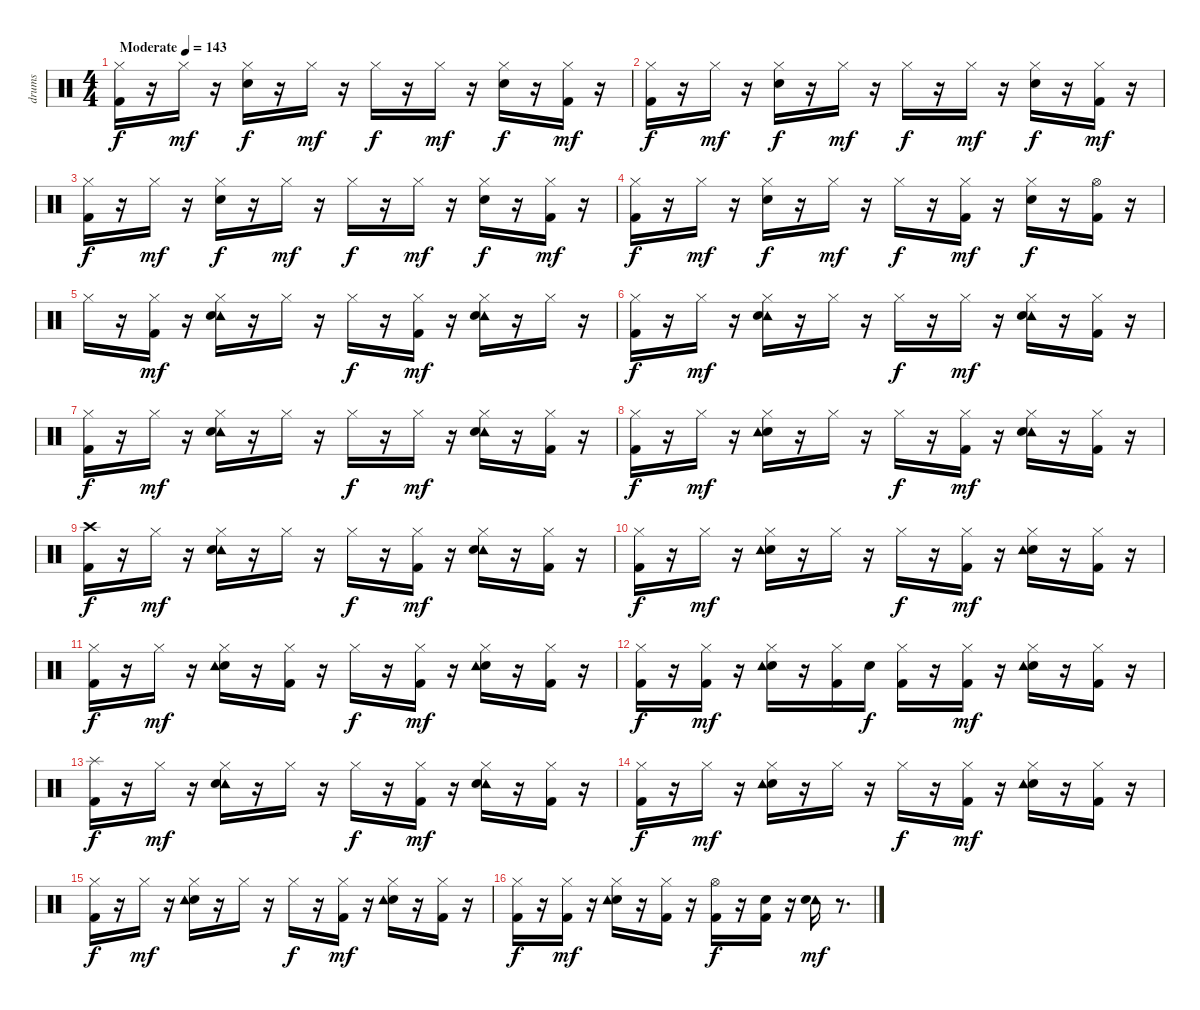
\track ("drums" "drums") {instrument percussion}
\staff {score}
\articulation defaults
\ts (4 4)
\tempo (143 "Moderate")
\clef neutral
\ks c
("Kick (hit) 2" "Hi-Hat (closed)").16{dy f} r.16 "Hi-Hat (closed)".16{dy mf} r.16 ("Snare (hit) 2" "Hi-Hat (closed)").16{dy f} r.16 "Hi-Hat (closed)".16{dy mf} r.16 "Hi-Hat (closed)".16{dy f} r.16 "Hi-Hat (closed)".16{dy mf} r.16 ("Snare (hit) 2" "Hi-Hat (closed)").16{dy f} r.16 ("Kick (hit) 2" "Hi-Hat (closed)").16{dy mf} r.16 |
("Kick (hit) 2" "Hi-Hat (closed)").16{dy f} r.16 "Hi-Hat (closed)".16{dy mf} r.16 ("Snare (hit) 2" "Hi-Hat (closed)").16{dy f} r.16 "Hi-Hat (closed)".16{dy mf} r.16 "Hi-Hat (closed)".16{dy f} r.16 "Hi-Hat (closed)".16{dy mf} r.16 ("Snare (hit) 2" "Hi-Hat (closed)").16{dy f} r.16 ("Kick (hit) 2" "Hi-Hat (closed)").16{dy mf} r.16 |
("Kick (hit) 2" "Hi-Hat (closed)").16{dy f} r.16 "Hi-Hat (closed)".16{dy mf} r.16 ("Snare (hit) 2" "Hi-Hat (closed)").16{dy f} r.16 "Hi-Hat (closed)".16{dy mf} r.16 "Hi-Hat (closed)".16{dy f} r.16 "Hi-Hat (closed)".16{dy mf} r.16 ("Snare (hit) 2" "Hi-Hat (closed)").16{dy f} r.16 ("Kick (hit) 2" "Hi-Hat (closed)").16{dy mf} r.16 |
("Hi-Hat (closed)" "Kick (hit) 2").16{dy f} r.16 "Hi-Hat (closed)".16{dy mf} r.16 ("Hi-Hat (closed)" "Snare (hit) 2").16{dy f} r.16 "Hi-Hat (closed)".16{dy mf} r.16 "Hi-Hat (closed)".16{dy f} r.16 ("Kick (hit) 2" "Hi-Hat (closed)").16{dy mf} r.16 ("Hi-Hat (closed)" "Snare (hit) 2").16{dy f} r.16 ("Hi-Hat (open)" "Kick (hit) 2").16 r.16 |
"Hi-Hat (closed)".16 r.16 ("Kick (hit) 2" "Hi-Hat (closed)").16{dy mf} r.16 ("Tambourine (hit)" "Hi-Hat (closed)" "Snare (hit) 2").16 r.16 "Hi-Hat (closed)".16 r.16 "Hi-Hat (closed)".16{dy f} r.16 ("Kick (hit) 2" "Hi-Hat (closed)").16{dy mf} r.16 ("Tambourine (hit)" "Hi-Hat (closed)" "Snare (hit) 2").16 r.16 "Hi-Hat (closed)".16 r.16 |
("Kick (hit) 2" "Hi-Hat (closed)").16{dy f} r.16 "Hi-Hat (closed)".16{dy mf} r.16 ("Tambourine (hit)" "Snare (hit) 2" "Hi-Hat (closed)").16 r.16 "Hi-Hat (closed)".16 r.16 "Hi-Hat (closed)".16{dy f} r.16 "Hi-Hat (closed)".16{dy mf} r.16 ("Tambourine (hit)" "Snare (hit) 2" "Hi-Hat (closed)").16 r.16 ("Kick (hit) 2" "Hi-Hat (closed)").16 r.16 |
("Kick (hit) 2" "Hi-Hat (closed)").16{dy f} r.16 "Hi-Hat (closed)".16{dy mf} r.16 ("Tambourine (hit)" "Snare (hit) 2" "Hi-Hat (closed)").16 r.16 "Hi-Hat (closed)".16 r.16 "Hi-Hat (closed)".16{dy f} r.16 "Hi-Hat (closed)".16{dy mf} r.16 ("Tambourine (hit)" "Snare (hit) 2" "Hi-Hat (closed)").16 r.16 ("Kick (hit) 2" "Hi-Hat (closed)").16 r.16 |
("Hi-Hat (closed)" "Kick (hit) 2").16{dy f} r.16 "Hi-Hat (closed)".16{dy mf} r.16 ("Hi-Hat (closed)" "Snare (hit) 2" "Tambourine (hit)").16 r.16 "Hi-Hat (closed)".16 r.16 "Hi-Hat (closed)".16{dy f} r.16 ("Kick (hit) 2" "Hi-Hat (closed)").16{dy mf} r.16 ("Tambourine (hit)" "Hi-Hat (closed)" "Snare (hit) 2").16 r.16 ("Kick (hit) 2" "Hi-Hat (closed)").16 r.16 |
("Kick (hit) 2" "Crash high (hit)").16{dy f} r.16 "Hi-Hat (closed)".16{dy mf} r.16 ("Tambourine (hit)" "Hi-Hat (closed)" "Snare (hit) 2").16 r.16 "Hi-Hat (closed)".16 r.16 "Hi-Hat (closed)".16{dy f} r.16 ("Hi-Hat (closed)" "Kick (hit) 2").16{dy mf} r.16 ("Tambourine (hit)" "Hi-Hat (closed)" "Snare (hit) 2").16 r.16 ("Hi-Hat (closed)" "Kick (hit) 2").16 r.16 |
("Hi-Hat (closed)" "Kick (hit) 2").16{dy f} r.16 "Hi-Hat (closed)".16{dy mf} r.16 ("Hi-Hat (closed)" "Snare (hit) 2" "Tambourine (hit)").16 r.16 "Hi-Hat (closed)".16 r.16 "Hi-Hat (closed)".16{dy f} r.16 ("Hi-Hat (closed)" "Kick (hit) 2").16{dy mf} r.16 ("Hi-Hat (closed)" "Snare (hit) 2" "Tambourine (hit)").16 r.16 ("Hi-Hat (closed)" "Kick (hit) 2").16 r.16 |
("Kick (hit) 2" "Hi-Hat (closed)").16{dy f} r.16 "Hi-Hat (closed)".16{dy mf} r.16 ("Snare (hit) 2" "Hi-Hat (closed)" "Tambourine (hit)").16 r.16 ("Kick (hit) 2" "Hi-Hat (closed)").16 r.16 "Hi-Hat (closed)".16{dy f} r.16 ("Kick (hit) 2" "Hi-Hat (closed)").16{dy mf} r.16 ("Snare (hit) 2" "Hi-Hat (closed)" "Tambourine (hit)").16 r.16 ("Kick (hit) 2" "Hi-Hat (closed)").16 r.16 |
("Kick (hit) 2" "Hi-Hat (closed)").16{dy f} r.16 ("Kick (hit) 2" "Hi-Hat (closed)").16{dy mf} r.16 ("Snare (hit) 2" "Hi-Hat (closed)" "Tambourine (hit)").16 r.16 ("Kick (hit) 2" "Hi-Hat (closed)").16 "Snare (hit) 2".16{dy f} ("Kick (hit) 2" "Hi-Hat (closed)").16 r.16 ("Kick (hit) 2" "Hi-Hat (closed)").16{dy mf} r.16 ("Snare (hit) 2" "Hi-Hat (closed)" "Tambourine (hit)").16 r.16 ("Kick (hit) 2" "Hi-Hat (closed)").16 r.16 |
("Splash (hit)" "Kick (hit) 2").16{dy f} r.16 "Hi-Hat (closed)".16{dy mf} r.16 ("Tambourine (hit)" "Snare (hit) 2" "Hi-Hat (closed)").16 r.16 "Hi-Hat (closed)".16 r.16 "Hi-Hat (closed)".16{dy f} r.16 ("Kick (hit) 2" "Hi-Hat (closed)").16{dy mf} r.16 ("Tambourine (hit)" "Snare (hit) 2" "Hi-Hat (closed)").16 r.16 ("Kick (hit) 2" "Hi-Hat (closed)").16 r.16 |
("Kick (hit) 2" "Hi-Hat (closed)").16{dy f} r.16 "Hi-Hat (closed)".16{dy mf} r.16 ("Snare (hit) 2" "Hi-Hat (closed)" "Tambourine (hit)").16 r.16 "Hi-Hat (closed)".16 r.16 "Hi-Hat (closed)".16{dy f} r.16 ("Kick (hit) 2" "Hi-Hat (closed)").16{dy mf} r.16 ("Snare (hit) 2" "Hi-Hat (closed)" "Tambourine (hit)").16 r.16 ("Kick (hit) 2" "Hi-Hat (closed)").16 r.16 |
("Hi-Hat (closed)" "Kick (hit) 2").16{dy f} r.16 "Hi-Hat (closed)".16{dy mf} r.16 ("Hi-Hat (closed)" "Snare (hit) 2" "Tambourine (hit)").16 r.16 "Hi-Hat (closed)".16 r.16 "Hi-Hat (closed)".16{dy f} r.16 ("Hi-Hat (closed)" "Kick (hit) 2").16{dy mf} r.16 ("Hi-Hat (closed)" "Snare (hit) 2" "Tambourine (hit)").16 r.16 ("Hi-Hat (closed)" "Kick (hit) 2").16 r.16 |
("Hi-Hat (closed)" "Kick (hit) 2").16{dy f} r.16 ("Hi-Hat (closed)" "Kick (hit) 2").16{dy mf} r.16 ("Snare (hit) 2" "Hi-Hat (closed)" "Tambourine (hit)").16 r.16 ("Hi-Hat (closed)" "Kick (hit) 2").16 r.16 ("Hi-Hat (open)" "Kick (hit) 2").16{dy f} r.16 ("Snare (hit) 2" "Kick (hit) 2").16 r.16 ("Tambourine (hit)" "Snare (hit) 2").16{dy mf} r.8{d}
